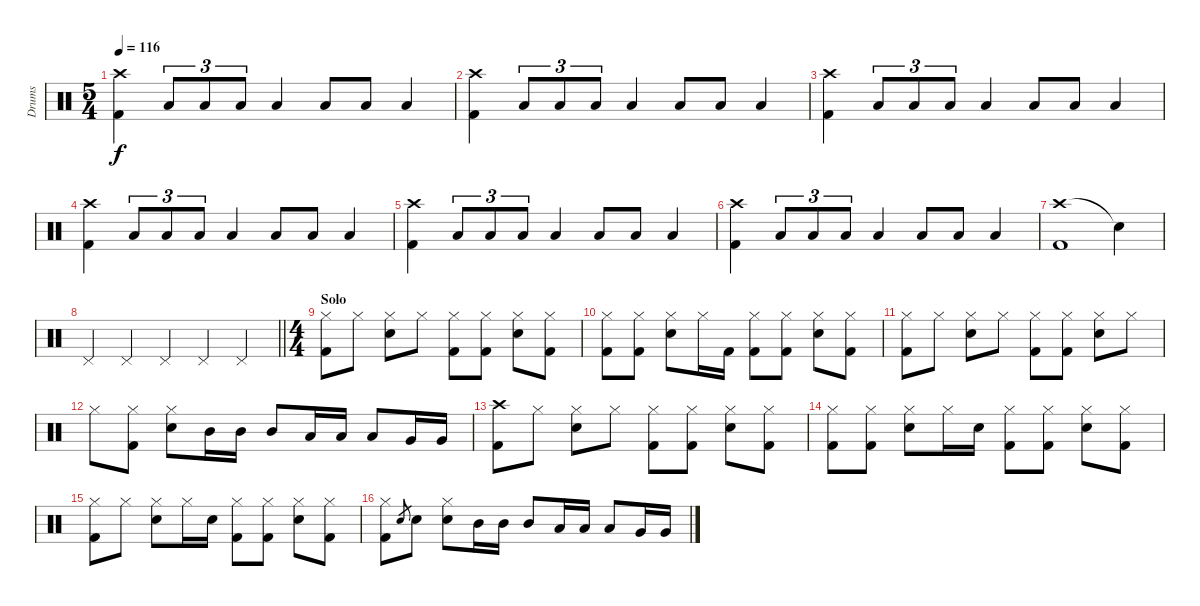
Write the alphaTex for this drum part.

\track ("Drums" "Drums") {instrument percussion}
\staff {score}
\articulation defaults
\ts (5 4)
\tempo 116
\clef neutral
\ks c
("Crash high (hit)" "Kick (hit) 2").4{dy f} "Low Tom (hit)".8{tu (3 2)} "Low Tom (hit)".8{tu (3 2)} "Low Tom (hit)".8{tu (3 2)} "Low Tom (hit)".4 "Low Tom (hit)".8 "Low Tom (hit)".8 "Low Tom (hit)".4 |
("Crash high (hit)" "Kick (hit) 2").4 "Low Tom (hit)".8{tu (3 2)} "Low Tom (hit)".8{tu (3 2)} "Low Tom (hit)".8{tu (3 2)} "Low Tom (hit)".4 "Low Tom (hit)".8 "Low Tom (hit)".8 "Low Tom (hit)".4 |
("Crash high (hit)" "Kick (hit) 2").4 "Low Tom (hit)".8{tu (3 2)} "Low Tom (hit)".8{tu (3 2)} "Low Tom (hit)".8{tu (3 2)} "Low Tom (hit)".4 "Low Tom (hit)".8 "Low Tom (hit)".8 "Low Tom (hit)".4 |
("Crash high (hit)" "Kick (hit) 2").4 "Low Tom (hit)".8{tu (3 2)} "Low Tom (hit)".8{tu (3 2)} "Low Tom (hit)".8{tu (3 2)} "Low Tom (hit)".4 "Low Tom (hit)".8 "Low Tom (hit)".8 "Low Tom (hit)".4 |
("Crash high (hit)" "Kick (hit) 2").4 "Low Tom (hit)".8{tu (3 2)} "Low Tom (hit)".8{tu (3 2)} "Low Tom (hit)".8{tu (3 2)} "Low Tom (hit)".4 "Low Tom (hit)".8 "Low Tom (hit)".8 "Low Tom (hit)".4 |
("Crash high (hit)" "Kick (hit) 2").4 "Low Tom (hit)".8{tu (3 2)} "Low Tom (hit)".8{tu (3 2)} "Low Tom (hit)".8{tu (3 2)} "Low Tom (hit)".4 "Low Tom (hit)".8 "Low Tom (hit)".8 "Low Tom (hit)".4 |
("Crash high (hit)" "Kick (hit) 2").1 "Snare (hit)"{t}.4 |
\barLineRight lightlight "Pedal Hi-Hat (hit)".4 "Pedal Hi-Hat (hit)".4 "Pedal Hi-Hat (hit)".4 "Pedal Hi-Hat (hit)".4 "Pedal Hi-Hat (hit)".4
|
\ts (4 4)
\section ("" "Solo")
("Hi-Hat (closed)" "Kick (hit) 2").8 "Hi-Hat (closed)".8 ("Hi-Hat (closed)" "Snare (hit) 2").8 "Hi-Hat (closed)".8 ("Hi-Hat (closed)" "Kick (hit) 2").8 ("Hi-Hat (closed)" "Kick (hit) 2").8 ("Hi-Hat (closed)" "Snare (hit) 2").8 ("Hi-Hat (closed)" "Kick (hit) 2").8 |
("Hi-Hat (closed)" "Kick (hit) 2").8 ("Hi-Hat (closed)" "Kick (hit) 2").8 ("Hi-Hat (closed)" "Snare (hit) 2").8 "Hi-Hat (closed)".16 "Kick (hit) 2".16 ("Hi-Hat (closed)" "Kick (hit) 2").8 ("Hi-Hat (closed)" "Kick (hit) 2").8 ("Hi-Hat (closed)" "Snare (hit) 2").8 ("Hi-Hat (closed)" "Kick (hit) 2").8 |
("Hi-Hat (closed)" "Kick (hit) 2").8 "Hi-Hat (closed)".8 ("Hi-Hat (closed)" "Snare (hit) 2").8 "Hi-Hat (closed)".8 ("Hi-Hat (closed)" "Kick (hit) 2").8 ("Hi-Hat (closed)" "Kick (hit) 2").8 ("Hi-Hat (closed)" "Snare (hit) 2").8 "Hi-Hat (closed)".8 |
"Hi-Hat (closed)".8 ("Hi-Hat (closed)" "Kick (hit) 2").8 ("Hi-Hat (closed)" "Snare (hit) 2").8 "Mid Tom (hit)".16 "Mid Tom (hit)".16 "Mid Tom (hit)".8 "Low Tom (hit)".16 "Low Tom (hit)".16 "Low Tom (hit)".8 "Very Low Tom (hit)".16 "Very Low Tom (hit)".16 |
("Crash high (hit)" "Kick (hit) 2").8 "Hi-Hat (closed)".8 ("Hi-Hat (closed)" "Snare (hit) 2").8 "Hi-Hat (closed)".8 ("Hi-Hat (closed)" "Kick (hit) 2").8 ("Hi-Hat (closed)" "Kick (hit) 2").8 ("Hi-Hat (closed)" "Snare (hit) 2").8 ("Hi-Hat (closed)" "Kick (hit) 2").8 |
("Hi-Hat (closed)" "Kick (hit) 2").8 ("Hi-Hat (closed)" "Kick (hit) 2").8 ("Hi-Hat (closed)" "Snare (hit) 2").8 "Hi-Hat (closed)".16 "Snare (hit) 2".16 ("Hi-Hat (closed)" "Kick (hit) 2").8 ("Hi-Hat (closed)" "Kick (hit) 2").8 ("Hi-Hat (closed)" "Snare (hit) 2").8 ("Hi-Hat (closed)" "Kick (hit) 2").8 |
("Hi-Hat (closed)" "Kick (hit) 2").8 "Hi-Hat (closed)".8 ("Hi-Hat (closed)" "Snare (hit) 2").8 "Hi-Hat (closed)".16 "Snare (hit) 2".16 ("Hi-Hat (closed)" "Kick (hit) 2").8 ("Hi-Hat (closed)" "Kick (hit) 2").8 ("Hi-Hat (closed)" "Snare (hit) 2").8 ("Hi-Hat (closed)" "Kick (hit) 2").8 |
("Hi-Hat (closed)" "Kick (hit) 2").8 "Snare (hit) 2".8{gr} "Snare (hit) 2".8 ("Hi-Hat (closed)" "Snare (hit) 2").8 "Mid Tom (hit)".16 "Mid Tom (hit)".16 "Mid Tom (hit)".8 "Low Tom (hit)".16 "Low Tom (hit)".16 "Low Tom (hit)".8 "Very Low Tom (hit)".16 "Very Low Tom (hit)".16
